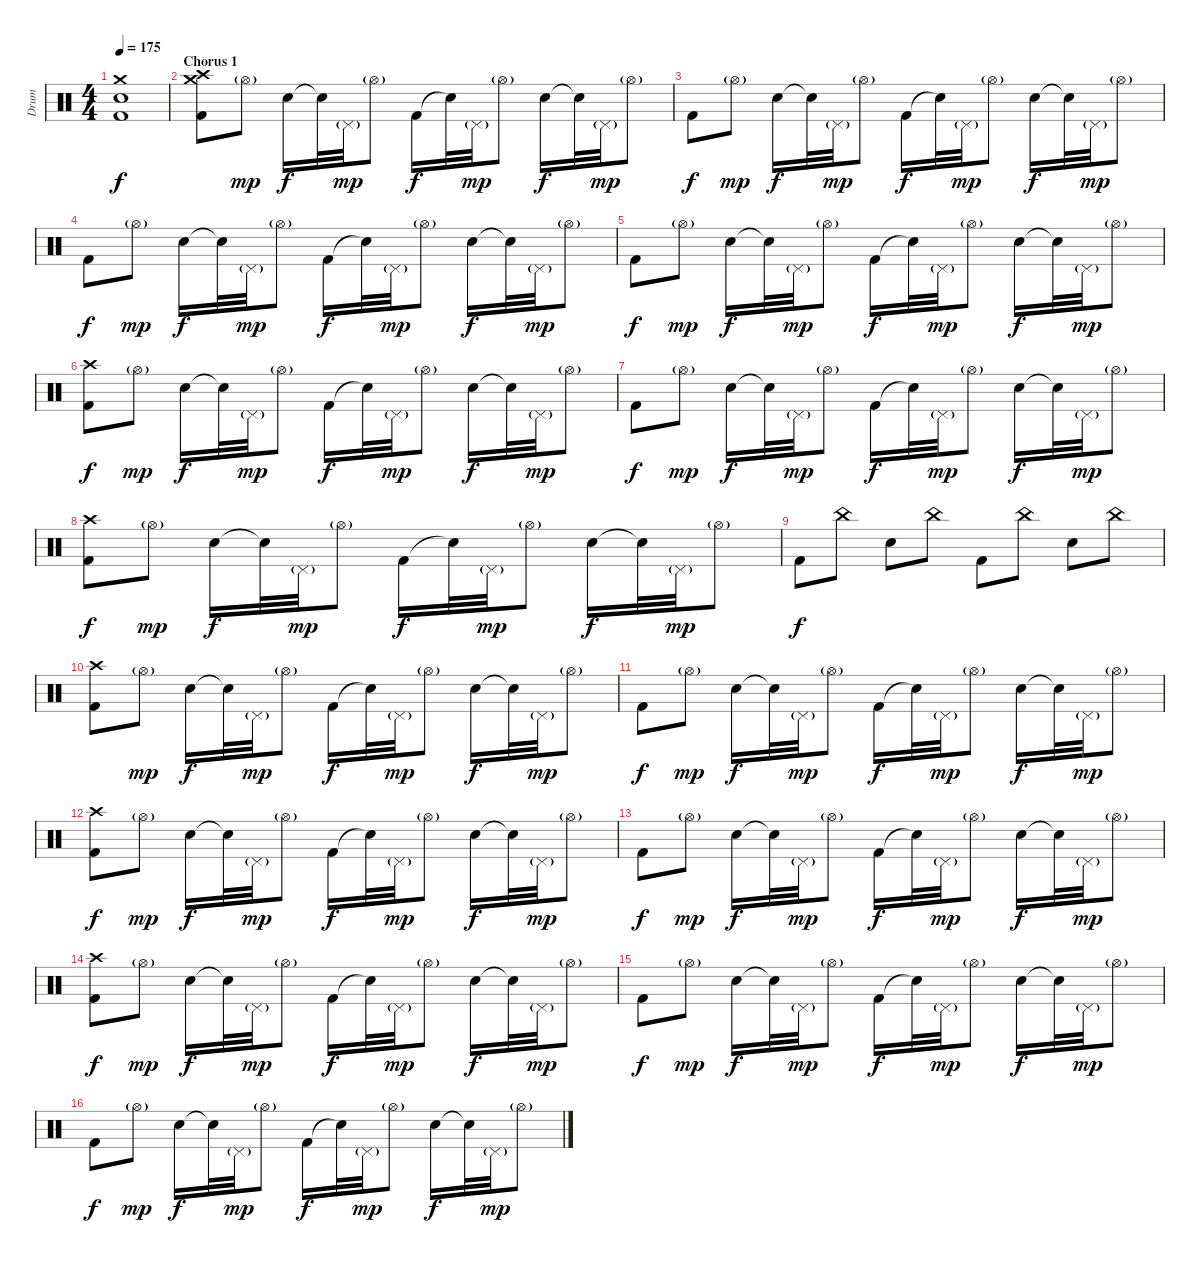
\track ("Drum" "Drum") {instrument percussion}
\staff {score}
\articulation defaults
\ts (4 4)
\tempo 175
\clef neutral
\ks c
("Electric Snare (hit)" "Kick (hit) 2" "Crash medium (hit)").1{dy f} |
\section ("" "Chorus 1")
("Kick (hit) 2" "Crash high (hit)" "Crash medium (hit)").8 "Hi-Hat (open)"{g}.8{dy mp} "Electric Snare (hit)".16{dy f} "Snare (hit)"{t}.32 "Pedal Hi-Hat (hit)"{g}.32{dy mp} "Hi-Hat (open)"{g}.8 "Kick (hit) 2".16{dy f} "Snare (hit)"{t}.32 "Pedal Hi-Hat (hit)"{g}.32{dy mp} "Hi-Hat (open)"{g}.8 "Electric Snare (hit)".16{dy f} "Snare (hit)"{t}.32 "Pedal Hi-Hat (hit)"{g}.32{dy mp} "Hi-Hat (open)"{g}.8 |
"Kick (hit) 2".8{dy f} "Hi-Hat (open)"{g}.8{dy mp} "Electric Snare (hit)".16{dy f} "Snare (hit)"{t}.32 "Pedal Hi-Hat (hit)"{g}.32{dy mp} "Hi-Hat (open)"{g}.8 "Kick (hit) 2".16{dy f} "Snare (hit)"{t}.32 "Pedal Hi-Hat (hit)"{g}.32{dy mp} "Hi-Hat (open)"{g}.8 "Electric Snare (hit)".16{dy f} "Snare (hit)"{t}.32 "Pedal Hi-Hat (hit)"{g}.32{dy mp} "Hi-Hat (open)"{g}.8 |
"Kick (hit) 2".8{dy f} "Hi-Hat (open)"{g}.8{dy mp} "Electric Snare (hit)".16{dy f} "Snare (hit)"{t}.32 "Pedal Hi-Hat (hit)"{g}.32{dy mp} "Hi-Hat (open)"{g}.8 "Kick (hit) 2".16{dy f} "Snare (hit)"{t}.32 "Pedal Hi-Hat (hit)"{g}.32{dy mp} "Hi-Hat (open)"{g}.8 "Electric Snare (hit)".16{dy f} "Snare (hit)"{t}.32 "Pedal Hi-Hat (hit)"{g}.32{dy mp} "Hi-Hat (open)"{g}.8 |
"Kick (hit) 2".8{dy f} "Hi-Hat (open)"{g}.8{dy mp} "Electric Snare (hit)".16{dy f} "Snare (hit)"{t}.32 "Pedal Hi-Hat (hit)"{g}.32{dy mp} "Hi-Hat (open)"{g}.8 "Kick (hit) 2".16{dy f} "Snare (hit)"{t}.32 "Pedal Hi-Hat (hit)"{g}.32{dy mp} "Hi-Hat (open)"{g}.8 "Electric Snare (hit)".16{dy f} "Snare (hit)"{t}.32 "Pedal Hi-Hat (hit)"{g}.32{dy mp} "Hi-Hat (open)"{g}.8 |
("Kick (hit) 2" "Crash high (hit)").8{dy f} "Hi-Hat (open)"{g}.8{dy mp} "Electric Snare (hit)".16{dy f} "Snare (hit)"{t}.32 "Pedal Hi-Hat (hit)"{g}.32{dy mp} "Hi-Hat (open)"{g}.8 "Kick (hit) 2".16{dy f} "Snare (hit)"{t}.32 "Pedal Hi-Hat (hit)"{g}.32{dy mp} "Hi-Hat (open)"{g}.8 "Electric Snare (hit)".16{dy f} "Snare (hit)"{t}.32 "Pedal Hi-Hat (hit)"{g}.32{dy mp} "Hi-Hat (open)"{g}.8 |
"Kick (hit) 2".8{dy f} "Hi-Hat (open)"{g}.8{dy mp} "Electric Snare (hit)".16{dy f} "Snare (hit)"{t}.32 "Pedal Hi-Hat (hit)"{g}.32{dy mp} "Hi-Hat (open)"{g}.8 "Kick (hit) 2".16{dy f} "Snare (hit)"{t}.32 "Pedal Hi-Hat (hit)"{g}.32{dy mp} "Hi-Hat (open)"{g}.8 "Electric Snare (hit)".16{dy f} "Snare (hit)"{t}.32 "Pedal Hi-Hat (hit)"{g}.32{dy mp} "Hi-Hat (open)"{g}.8 |
("Kick (hit) 2" "Crash high (hit)").8{dy f} "Hi-Hat (open)"{g}.8{dy mp} "Electric Snare (hit)".16{dy f} "Snare (hit)"{t}.32 "Pedal Hi-Hat (hit)"{g}.32{dy mp} "Hi-Hat (open)"{g}.8 "Kick (hit) 2".16{dy f} "Snare (hit)"{t}.32 "Pedal Hi-Hat (hit)"{g}.32{dy mp} "Hi-Hat (open)"{g}.8 "Electric Snare (hit)".16{dy f} "Snare (hit)"{t}.32 "Pedal Hi-Hat (hit)"{g}.32{dy mp} "Hi-Hat (open)"{g}.8 |
"Kick (hit) 2".8{dy f} "China (hit)".8 "Electric Snare (hit)".8 "China (hit)".8 "Kick (hit) 2".8 "China (hit)".8 "Electric Snare (hit)".8 "China (hit)".8 |
("Kick (hit) 2" "Crash high (hit)").8 "Hi-Hat (open)"{g}.8{dy mp} "Electric Snare (hit)".16{dy f} "Snare (hit)"{t}.32 "Pedal Hi-Hat (hit)"{g}.32{dy mp} "Hi-Hat (open)"{g}.8 "Kick (hit) 2".16{dy f} "Snare (hit)"{t}.32 "Pedal Hi-Hat (hit)"{g}.32{dy mp} "Hi-Hat (open)"{g}.8 "Electric Snare (hit)".16{dy f} "Snare (hit)"{t}.32 "Pedal Hi-Hat (hit)"{g}.32{dy mp} "Hi-Hat (open)"{g}.8 |
"Kick (hit) 2".8{dy f} "Hi-Hat (open)"{g}.8{dy mp} "Electric Snare (hit)".16{dy f} "Snare (hit)"{t}.32 "Pedal Hi-Hat (hit)"{g}.32{dy mp} "Hi-Hat (open)"{g}.8 "Kick (hit) 2".16{dy f} "Snare (hit)"{t}.32 "Pedal Hi-Hat (hit)"{g}.32{dy mp} "Hi-Hat (open)"{g}.8 "Electric Snare (hit)".16{dy f} "Snare (hit)"{t}.32 "Pedal Hi-Hat (hit)"{g}.32{dy mp} "Hi-Hat (open)"{g}.8 |
("Kick (hit) 2" "Crash high (hit)").8{dy f} "Hi-Hat (open)"{g}.8{dy mp} "Electric Snare (hit)".16{dy f} "Snare (hit)"{t}.32 "Pedal Hi-Hat (hit)"{g}.32{dy mp} "Hi-Hat (open)"{g}.8 "Kick (hit) 2".16{dy f} "Snare (hit)"{t}.32 "Pedal Hi-Hat (hit)"{g}.32{dy mp} "Hi-Hat (open)"{g}.8 "Electric Snare (hit)".16{dy f} "Snare (hit)"{t}.32 "Pedal Hi-Hat (hit)"{g}.32{dy mp} "Hi-Hat (open)"{g}.8 |
"Kick (hit) 2".8{dy f} "Hi-Hat (open)"{g}.8{dy mp} "Electric Snare (hit)".16{dy f} "Snare (hit)"{t}.32 "Pedal Hi-Hat (hit)"{g}.32{dy mp} "Hi-Hat (open)"{g}.8 "Kick (hit) 2".16{dy f} "Snare (hit)"{t}.32 "Pedal Hi-Hat (hit)"{g}.32{dy mp} "Hi-Hat (open)"{g}.8 "Electric Snare (hit)".16{dy f} "Snare (hit)"{t}.32 "Pedal Hi-Hat (hit)"{g}.32{dy mp} "Hi-Hat (open)"{g}.8 |
("Kick (hit) 2" "Crash high (hit)").8{dy f} "Hi-Hat (open)"{g}.8{dy mp} "Electric Snare (hit)".16{dy f} "Snare (hit)"{t}.32 "Pedal Hi-Hat (hit)"{g}.32{dy mp} "Hi-Hat (open)"{g}.8 "Kick (hit) 2".16{dy f} "Snare (hit)"{t}.32 "Pedal Hi-Hat (hit)"{g}.32{dy mp} "Hi-Hat (open)"{g}.8 "Electric Snare (hit)".16{dy f} "Snare (hit)"{t}.32 "Pedal Hi-Hat (hit)"{g}.32{dy mp} "Hi-Hat (open)"{g}.8 |
"Kick (hit) 2".8{dy f} "Hi-Hat (open)"{g}.8{dy mp} "Electric Snare (hit)".16{dy f} "Snare (hit)"{t}.32 "Pedal Hi-Hat (hit)"{g}.32{dy mp} "Hi-Hat (open)"{g}.8 "Kick (hit) 2".16{dy f} "Snare (hit)"{t}.32 "Pedal Hi-Hat (hit)"{g}.32{dy mp} "Hi-Hat (open)"{g}.8 "Electric Snare (hit)".16{dy f} "Snare (hit)"{t}.32 "Pedal Hi-Hat (hit)"{g}.32{dy mp} "Hi-Hat (open)"{g}.8 |
"Kick (hit) 2".8{dy f} "Hi-Hat (open)"{g}.8{dy mp} "Electric Snare (hit)".16{dy f} "Snare (hit)"{t}.32 "Pedal Hi-Hat (hit)"{g}.32{dy mp} "Hi-Hat (open)"{g}.8 "Kick (hit) 2".16{dy f} "Snare (hit)"{t}.32 "Pedal Hi-Hat (hit)"{g}.32{dy mp} "Hi-Hat (open)"{g}.8 "Electric Snare (hit)".16{dy f} "Snare (hit)"{t}.32 "Pedal Hi-Hat (hit)"{g}.32{dy mp} "Hi-Hat (open)"{g}.8
